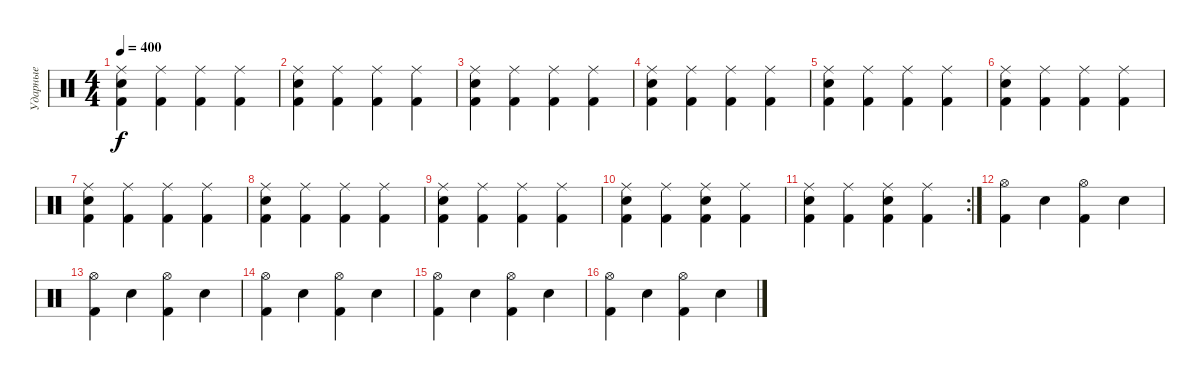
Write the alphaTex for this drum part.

\track ("Ударные" "Ударные") {instrument percussion}
\staff {score}
\articulation defaults
\ts (4 4)
\tempo 400
\clef neutral
\ks c
("Kick (hit) 2" "Electric Snare (hit)" "Ride (middle)").4{dy f} ("Kick (hit) 2" "Ride (middle)").4 ("Kick (hit) 2" "Ride (middle)").4 ("Kick (hit) 2" "Ride (middle)").4 |
("Kick (hit) 2" "Electric Snare (hit)" "Ride (middle)").4 ("Kick (hit) 2" "Ride (middle)").4 ("Kick (hit) 2" "Ride (middle)").4 ("Kick (hit) 2" "Ride (middle)").4 |
("Kick (hit) 2" "Electric Snare (hit)" "Ride (middle)").4 ("Kick (hit) 2" "Ride (middle)").4 ("Kick (hit) 2" "Ride (middle)").4 ("Kick (hit) 2" "Ride (middle)").4 |
("Kick (hit) 2" "Electric Snare (hit)" "Ride (middle)").4 ("Kick (hit) 2" "Ride (middle)").4 ("Kick (hit) 2" "Ride (middle)").4 ("Kick (hit) 2" "Ride (middle)").4 |
("Kick (hit) 2" "Electric Snare (hit)" "Ride (middle)").4 ("Kick (hit) 2" "Ride (middle)").4 ("Kick (hit) 2" "Ride (middle)").4 ("Kick (hit) 2" "Ride (middle)").4 |
("Kick (hit) 2" "Electric Snare (hit)" "Ride (middle)").4 ("Kick (hit) 2" "Ride (middle)").4 ("Kick (hit) 2" "Ride (middle)").4 ("Kick (hit) 2" "Ride (middle)").4 |
("Kick (hit) 2" "Electric Snare (hit)" "Ride (middle)").4 ("Kick (hit) 2" "Ride (middle)").4 ("Kick (hit) 2" "Ride (middle)").4 ("Kick (hit) 2" "Ride (middle)").4 |
("Kick (hit) 2" "Electric Snare (hit)" "Ride (middle)").4 ("Kick (hit) 2" "Ride (middle)").4 ("Kick (hit) 2" "Ride (middle)").4 ("Kick (hit) 2" "Ride (middle)").4 |
("Kick (hit) 2" "Electric Snare (hit)" "Ride (middle)").4 ("Kick (hit) 2" "Ride (middle)").4 ("Kick (hit) 2" "Ride (middle)").4 ("Kick (hit) 2" "Ride (middle)").4 |
("Kick (hit) 2" "Electric Snare (hit)" "Ride (middle)").4 ("Kick (hit) 2" "Ride (middle)").4 ("Kick (hit) 2" "Ride (middle)" "Electric Snare (hit)").4 ("Kick (hit) 2" "Ride (middle)").4 |
\rc 2
("Kick (hit) 2" "Electric Snare (hit)" "Ride (middle)").4 ("Kick (hit) 2" "Ride (middle)").4 ("Kick (hit) 2" "Ride (middle)" "Electric Snare (hit)").4 ("Kick (hit) 2" "Ride (middle)").4 |
("Kick (hit) 2" "Hi-Hat (open)").4 "Electric Snare (hit)".4 ("Kick (hit) 2" "Hi-Hat (open)").4 "Electric Snare (hit)".4 |
("Kick (hit) 2" "Hi-Hat (open)").4 "Electric Snare (hit)".4 ("Kick (hit) 2" "Hi-Hat (open)").4 "Electric Snare (hit)".4 |
("Kick (hit) 2" "Hi-Hat (open)").4 "Electric Snare (hit)".4 ("Kick (hit) 2" "Hi-Hat (open)").4 "Electric Snare (hit)".4 |
("Kick (hit) 2" "Hi-Hat (open)").4 "Electric Snare (hit)".4 ("Kick (hit) 2" "Hi-Hat (open)").4 "Electric Snare (hit)".4 |
("Kick (hit) 2" "Hi-Hat (open)").4 "Electric Snare (hit)".4 ("Kick (hit) 2" "Hi-Hat (open)").4 "Electric Snare (hit)".4
